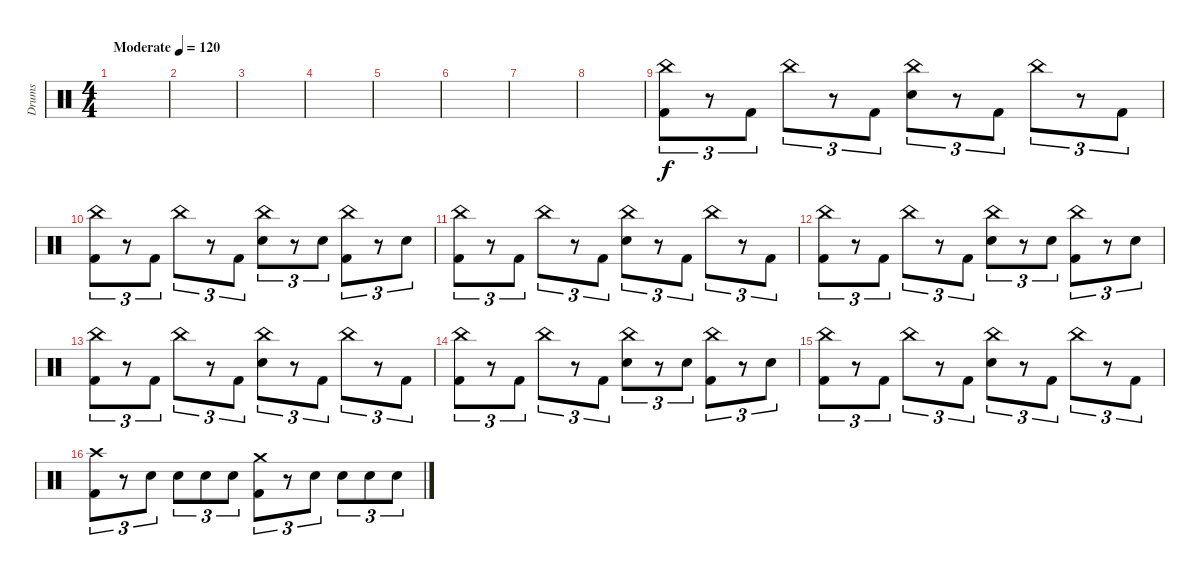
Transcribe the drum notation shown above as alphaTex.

\track ("Drums" "Drums") {instrument percussion}
\staff {score}
\articulation defaults
\ts (4 4)
\tempo (120 "Moderate")
\clef neutral
\ks c
|
|
|
|
|
|
|
|
("China (hit)" "Kick (hit) 2").8{tu (3 2)} r.8{tu (3 2)} "Kick (hit) 2".8{tu (3 2)} "China (hit)".8{tu (3 2)} r.8{tu (3 2)} "Kick (hit) 2".8{tu (3 2)} ("China (hit)" "Electric Snare (hit)").8{tu (3 2)} r.8{tu (3 2)} "Kick (hit) 2".8{tu (3 2)} "China (hit)".8{tu (3 2)} r.8{tu (3 2)} "Kick (hit) 2".8{tu (3 2)} |
("China (hit)" "Kick (hit) 2").8{tu (3 2)} r.8{tu (3 2)} "Kick (hit) 2".8{tu (3 2)} "China (hit)".8{tu (3 2)} r.8{tu (3 2)} "Kick (hit) 2".8{tu (3 2)} ("China (hit)" "Electric Snare (hit)").8{tu (3 2)} r.8{tu (3 2)} "Electric Snare (hit)".8{tu (3 2)} ("China (hit)" "Kick (hit) 2").8{tu (3 2)} r.8{tu (3 2)} "Electric Snare (hit)".8{tu (3 2)} |
("China (hit)" "Kick (hit) 2").8{tu (3 2)} r.8{tu (3 2)} "Kick (hit) 2".8{tu (3 2)} "China (hit)".8{tu (3 2)} r.8{tu (3 2)} "Kick (hit) 2".8{tu (3 2)} ("China (hit)" "Electric Snare (hit)").8{tu (3 2)} r.8{tu (3 2)} "Kick (hit) 2".8{tu (3 2)} "China (hit)".8{tu (3 2)} r.8{tu (3 2)} "Kick (hit) 2".8{tu (3 2)} |
("China (hit)" "Kick (hit) 2").8{tu (3 2)} r.8{tu (3 2)} "Kick (hit) 2".8{tu (3 2)} "China (hit)".8{tu (3 2)} r.8{tu (3 2)} "Kick (hit) 2".8{tu (3 2)} ("China (hit)" "Electric Snare (hit)").8{tu (3 2)} r.8{tu (3 2)} "Electric Snare (hit)".8{tu (3 2)} ("China (hit)" "Kick (hit) 2").8{tu (3 2)} r.8{tu (3 2)} "Electric Snare (hit)".8{tu (3 2)} |
("China (hit)" "Kick (hit) 2").8{tu (3 2)} r.8{tu (3 2)} "Kick (hit) 2".8{tu (3 2)} "China (hit)".8{tu (3 2)} r.8{tu (3 2)} "Kick (hit) 2".8{tu (3 2)} ("China (hit)" "Electric Snare (hit)").8{tu (3 2)} r.8{tu (3 2)} "Kick (hit) 2".8{tu (3 2)} "China (hit)".8{tu (3 2)} r.8{tu (3 2)} "Kick (hit) 2".8{tu (3 2)} |
("China (hit)" "Kick (hit) 2").8{tu (3 2)} r.8{tu (3 2)} "Kick (hit) 2".8{tu (3 2)} "China (hit)".8{tu (3 2)} r.8{tu (3 2)} "Kick (hit) 2".8{tu (3 2)} ("China (hit)" "Electric Snare (hit)").8{tu (3 2)} r.8{tu (3 2)} "Electric Snare (hit)".8{tu (3 2)} ("China (hit)" "Kick (hit) 2").8{tu (3 2)} r.8{tu (3 2)} "Electric Snare (hit)".8{tu (3 2)} |
("China (hit)" "Kick (hit) 2").8{tu (3 2)} r.8{tu (3 2)} "Kick (hit) 2".8{tu (3 2)} "China (hit)".8{tu (3 2)} r.8{tu (3 2)} "Kick (hit) 2".8{tu (3 2)} ("China (hit)" "Electric Snare (hit)").8{tu (3 2)} r.8{tu (3 2)} "Kick (hit) 2".8{tu (3 2)} "China (hit)".8{tu (3 2)} r.8{tu (3 2)} "Kick (hit) 2".8{tu (3 2)} |
("Crash high (hit)" "Kick (hit) 2").8{tu (3 2)} r.8{tu (3 2)} "Electric Snare (hit)".8{tu (3 2)} "Electric Snare (hit)".8{tu (3 2)} "Electric Snare (hit)".8{tu (3 2)} "Electric Snare (hit)".8{tu (3 2)} ("Crash medium (hit)" "Kick (hit) 2").8{tu (3 2)} r.8{tu (3 2)} "Electric Snare (hit)".8{tu (3 2)} "Electric Snare (hit)".8{tu (3 2)} "Electric Snare (hit)".8{tu (3 2)} "Electric Snare (hit)".8{tu (3 2)}
